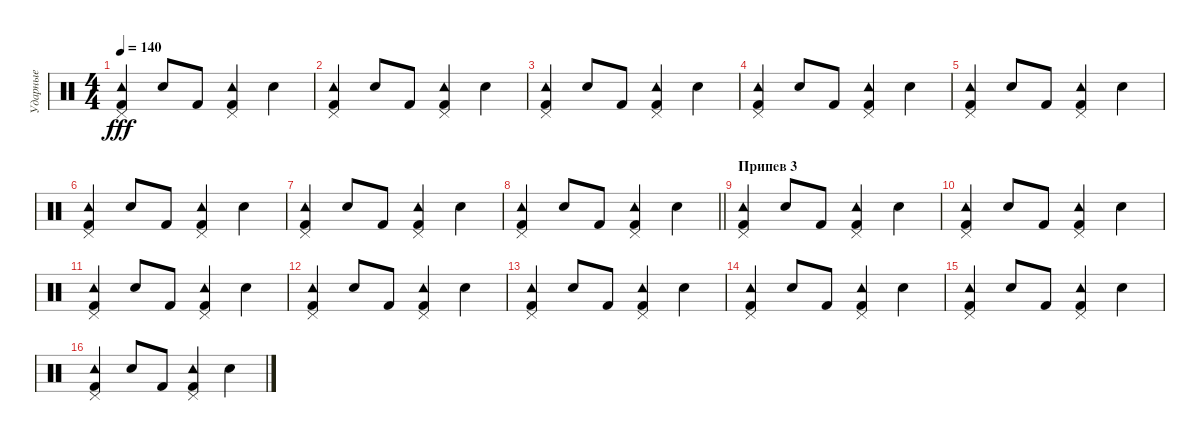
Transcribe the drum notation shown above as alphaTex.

\track ("Ударные" "Ударные") {instrument percussion}
\staff {score}
\articulation defaults
\ts (4 4)
\tempo 140
\clef neutral
\ks c
("Tambourine (hit)" "Pedal Hi-Hat (hit)" "Kick (hit) 2").4{dy fff} "Electric Snare (hit)".8 "Kick (hit) 2".8 ("Tambourine (hit)" "Pedal Hi-Hat (hit)" "Kick (hit) 2").4 "Electric Snare (hit)".4 |
("Tambourine (hit)" "Pedal Hi-Hat (hit)" "Kick (hit) 2").4 "Electric Snare (hit)".8 "Kick (hit) 2".8 ("Tambourine (hit)" "Pedal Hi-Hat (hit)" "Kick (hit) 2").4 "Electric Snare (hit)".4 |
("Tambourine (hit)" "Pedal Hi-Hat (hit)" "Kick (hit) 2").4 "Electric Snare (hit)".8 "Kick (hit) 2".8 ("Tambourine (hit)" "Pedal Hi-Hat (hit)" "Kick (hit) 2").4 "Electric Snare (hit)".4 |
("Tambourine (hit)" "Pedal Hi-Hat (hit)" "Kick (hit) 2").4 "Electric Snare (hit)".8 "Kick (hit) 2".8 ("Tambourine (hit)" "Pedal Hi-Hat (hit)" "Kick (hit) 2").4 "Electric Snare (hit)".4 |
("Tambourine (hit)" "Pedal Hi-Hat (hit)" "Kick (hit) 2").4 "Electric Snare (hit)".8 "Kick (hit) 2".8 ("Tambourine (hit)" "Pedal Hi-Hat (hit)" "Kick (hit) 2").4 "Electric Snare (hit)".4 |
("Tambourine (hit)" "Pedal Hi-Hat (hit)" "Kick (hit) 2").4 "Electric Snare (hit)".8 "Kick (hit) 2".8 ("Tambourine (hit)" "Pedal Hi-Hat (hit)" "Kick (hit) 2").4 "Electric Snare (hit)".4 |
("Tambourine (hit)" "Pedal Hi-Hat (hit)" "Kick (hit) 2").4 "Electric Snare (hit)".8 "Kick (hit) 2".8 ("Tambourine (hit)" "Pedal Hi-Hat (hit)" "Kick (hit) 2").4 "Electric Snare (hit)".4 |
\barLineRight lightlight
("Tambourine (hit)" "Pedal Hi-Hat (hit)" "Kick (hit) 2").4 "Electric Snare (hit)".8 "Kick (hit) 2".8 ("Tambourine (hit)" "Pedal Hi-Hat (hit)" "Kick (hit) 2").4 "Electric Snare (hit)".4 |
\section ("" "Припев 3")
("Tambourine (hit)" "Pedal Hi-Hat (hit)" "Kick (hit) 2").4 "Electric Snare (hit)".8 "Kick (hit) 2".8 ("Tambourine (hit)" "Pedal Hi-Hat (hit)" "Kick (hit) 2").4 "Electric Snare (hit)".4 |
("Tambourine (hit)" "Pedal Hi-Hat (hit)" "Kick (hit) 2").4 "Electric Snare (hit)".8 "Kick (hit) 2".8 ("Tambourine (hit)" "Pedal Hi-Hat (hit)" "Kick (hit) 2").4 "Electric Snare (hit)".4 |
("Tambourine (hit)" "Pedal Hi-Hat (hit)" "Kick (hit) 2").4 "Electric Snare (hit)".8 "Kick (hit) 2".8 ("Tambourine (hit)" "Pedal Hi-Hat (hit)" "Kick (hit) 2").4 "Electric Snare (hit)".4 |
("Tambourine (hit)" "Pedal Hi-Hat (hit)" "Kick (hit) 2").4 "Electric Snare (hit)".8 "Kick (hit) 2".8 ("Tambourine (hit)" "Pedal Hi-Hat (hit)" "Kick (hit) 2").4 "Electric Snare (hit)".4 |
("Tambourine (hit)" "Pedal Hi-Hat (hit)" "Kick (hit) 2").4 "Electric Snare (hit)".8 "Kick (hit) 2".8 ("Tambourine (hit)" "Pedal Hi-Hat (hit)" "Kick (hit) 2").4 "Electric Snare (hit)".4 |
("Tambourine (hit)" "Pedal Hi-Hat (hit)" "Kick (hit) 2").4 "Electric Snare (hit)".8 "Kick (hit) 2".8 ("Tambourine (hit)" "Pedal Hi-Hat (hit)" "Kick (hit) 2").4 "Electric Snare (hit)".4 |
("Tambourine (hit)" "Pedal Hi-Hat (hit)" "Kick (hit) 2").4 "Electric Snare (hit)".8 "Kick (hit) 2".8 ("Tambourine (hit)" "Pedal Hi-Hat (hit)" "Kick (hit) 2").4 "Electric Snare (hit)".4 |
("Tambourine (hit)" "Pedal Hi-Hat (hit)" "Kick (hit) 2").4 "Electric Snare (hit)".8 "Kick (hit) 2".8 ("Tambourine (hit)" "Pedal Hi-Hat (hit)" "Kick (hit) 2").4 "Electric Snare (hit)".4
